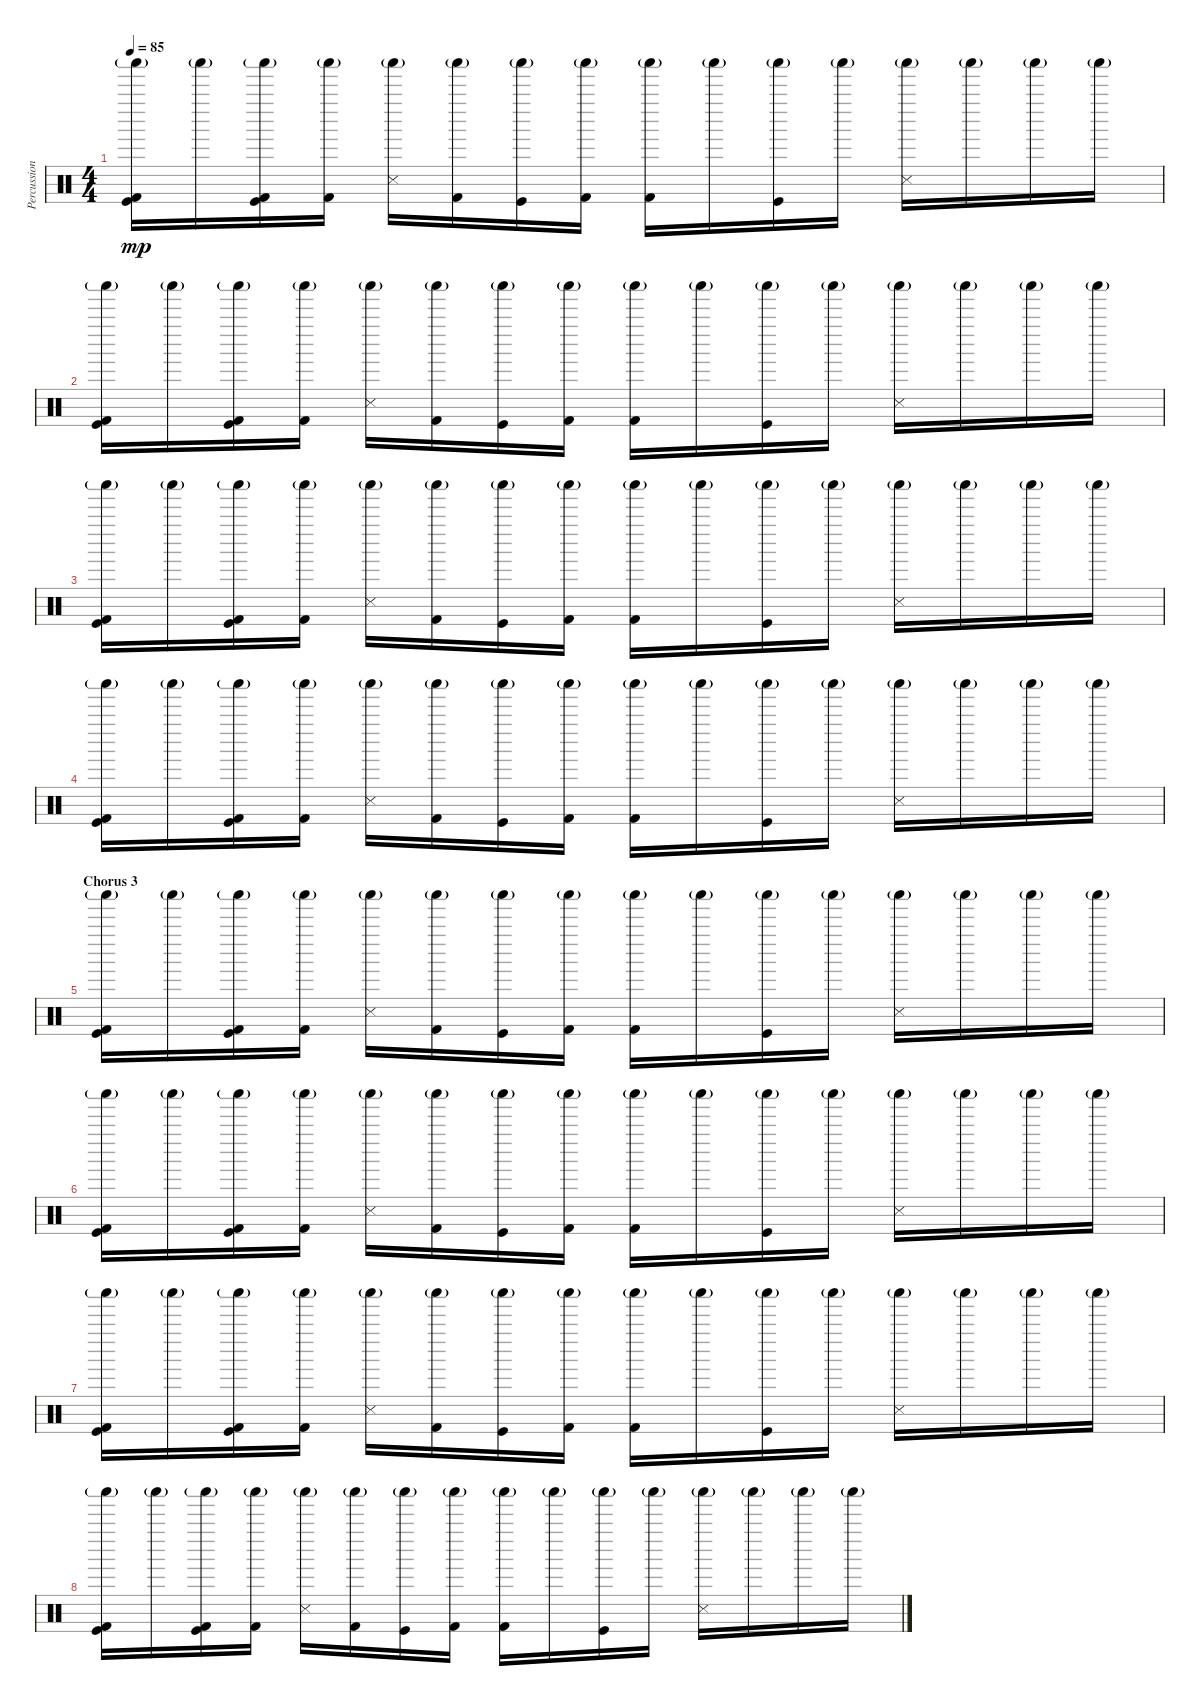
\track ("Percussions" "Percussion") {instrument percussion}
\staff {score}
\articulation defaults
\ts (4 4)
\tempo 85
\clef neutral
\ks c
("Shaker (hit)"{g} "Kick (hit) 2" "Kick (hit)").16{dy mp} "Shaker (hit)"{g}.16 ("Shaker (hit)"{g} "Kick (hit) 2" "Kick (hit)").16 ("Shaker (hit)"{g} "Kick (hit) 2").16 ("Shaker (hit)"{g} "Snare (side stick) 3").16 ("Shaker (hit)"{g} "Kick (hit) 2").16 ("Shaker (hit)"{g} "Kick (hit)").16 ("Shaker (hit)"{g} "Kick (hit) 2").16 ("Shaker (hit)"{g} "Kick (hit) 2").16 "Shaker (hit)"{g}.16 ("Shaker (hit)"{g} "Kick (hit)").16 "Shaker (hit)"{g}.16 ("Shaker (hit)"{g} "Snare (side stick) 3").16 "Shaker (hit)"{g}.16 "Shaker (hit)"{g}.16 "Shaker (hit)"{g}.16 |
("Shaker (hit)"{g} "Kick (hit) 2" "Kick (hit)").16 "Shaker (hit)"{g}.16 ("Shaker (hit)"{g} "Kick (hit) 2" "Kick (hit)").16 ("Shaker (hit)"{g} "Kick (hit) 2").16 ("Shaker (hit)"{g} "Snare (side stick) 3").16 ("Shaker (hit)"{g} "Kick (hit) 2").16 ("Shaker (hit)"{g} "Kick (hit)").16 ("Shaker (hit)"{g} "Kick (hit) 2").16 ("Shaker (hit)"{g} "Kick (hit) 2").16 "Shaker (hit)"{g}.16 ("Shaker (hit)"{g} "Kick (hit)").16 "Shaker (hit)"{g}.16 ("Shaker (hit)"{g} "Snare (side stick) 3").16 "Shaker (hit)"{g}.16 "Shaker (hit)"{g}.16 "Shaker (hit)"{g}.16 |
("Shaker (hit)"{g} "Kick (hit) 2" "Kick (hit)").16 "Shaker (hit)"{g}.16 ("Shaker (hit)"{g} "Kick (hit) 2" "Kick (hit)").16 ("Shaker (hit)"{g} "Kick (hit) 2").16 ("Shaker (hit)"{g} "Snare (side stick) 3").16 ("Shaker (hit)"{g} "Kick (hit) 2").16 ("Shaker (hit)"{g} "Kick (hit)").16 ("Shaker (hit)"{g} "Kick (hit) 2").16 ("Shaker (hit)"{g} "Kick (hit) 2").16 "Shaker (hit)"{g}.16 ("Shaker (hit)"{g} "Kick (hit)").16 "Shaker (hit)"{g}.16 ("Shaker (hit)"{g} "Snare (side stick) 3").16 "Shaker (hit)"{g}.16 "Shaker (hit)"{g}.16 "Shaker (hit)"{g}.16 |
("Shaker (hit)"{g} "Kick (hit) 2" "Kick (hit)").16 "Shaker (hit)"{g}.16 ("Shaker (hit)"{g} "Kick (hit) 2" "Kick (hit)").16 ("Shaker (hit)"{g} "Kick (hit) 2").16 ("Shaker (hit)"{g} "Snare (side stick) 3").16 ("Shaker (hit)"{g} "Kick (hit) 2").16 ("Shaker (hit)"{g} "Kick (hit)").16 ("Shaker (hit)"{g} "Kick (hit) 2").16 ("Shaker (hit)"{g} "Kick (hit) 2").16 "Shaker (hit)"{g}.16 ("Shaker (hit)"{g} "Kick (hit)").16 "Shaker (hit)"{g}.16 ("Shaker (hit)"{g} "Snare (side stick) 3").16 "Shaker (hit)"{g}.16 "Shaker (hit)"{g}.16 "Shaker (hit)"{g}.16 |
\section ("" "Chorus 3")
("Shaker (hit)"{g} "Kick (hit) 2" "Kick (hit)").16 "Shaker (hit)"{g}.16 ("Shaker (hit)"{g} "Kick (hit) 2" "Kick (hit)").16 ("Shaker (hit)"{g} "Kick (hit) 2").16 ("Shaker (hit)"{g} "Snare (side stick) 3").16 ("Shaker (hit)"{g} "Kick (hit) 2").16 ("Shaker (hit)"{g} "Kick (hit)").16 ("Shaker (hit)"{g} "Kick (hit) 2").16 ("Shaker (hit)"{g} "Kick (hit) 2").16 "Shaker (hit)"{g}.16 ("Shaker (hit)"{g} "Kick (hit)").16 "Shaker (hit)"{g}.16 ("Shaker (hit)"{g} "Snare (side stick) 3").16 "Shaker (hit)"{g}.16 "Shaker (hit)"{g}.16 "Shaker (hit)"{g}.16 |
("Shaker (hit)"{g} "Kick (hit) 2" "Kick (hit)").16 "Shaker (hit)"{g}.16 ("Shaker (hit)"{g} "Kick (hit) 2" "Kick (hit)").16 ("Shaker (hit)"{g} "Kick (hit) 2").16 ("Shaker (hit)"{g} "Snare (side stick) 3").16 ("Shaker (hit)"{g} "Kick (hit) 2").16 ("Shaker (hit)"{g} "Kick (hit)").16 ("Shaker (hit)"{g} "Kick (hit) 2").16 ("Shaker (hit)"{g} "Kick (hit) 2").16 "Shaker (hit)"{g}.16 ("Shaker (hit)"{g} "Kick (hit)").16 "Shaker (hit)"{g}.16 ("Shaker (hit)"{g} "Snare (side stick) 3").16 "Shaker (hit)"{g}.16 "Shaker (hit)"{g}.16 "Shaker (hit)"{g}.16 |
("Shaker (hit)"{g} "Kick (hit) 2" "Kick (hit)").16 "Shaker (hit)"{g}.16 ("Shaker (hit)"{g} "Kick (hit) 2" "Kick (hit)").16 ("Shaker (hit)"{g} "Kick (hit) 2").16 ("Shaker (hit)"{g} "Snare (side stick) 3").16 ("Shaker (hit)"{g} "Kick (hit) 2").16 ("Shaker (hit)"{g} "Kick (hit)").16 ("Shaker (hit)"{g} "Kick (hit) 2").16 ("Shaker (hit)"{g} "Kick (hit) 2").16 "Shaker (hit)"{g}.16 ("Shaker (hit)"{g} "Kick (hit)").16 "Shaker (hit)"{g}.16 ("Shaker (hit)"{g} "Snare (side stick) 3").16 "Shaker (hit)"{g}.16 "Shaker (hit)"{g}.16 "Shaker (hit)"{g}.16 |
("Shaker (hit)"{g} "Kick (hit) 2" "Kick (hit)").16 "Shaker (hit)"{g}.16 ("Shaker (hit)"{g} "Kick (hit) 2" "Kick (hit)").16 ("Shaker (hit)"{g} "Kick (hit) 2").16 ("Shaker (hit)"{g} "Snare (side stick) 3").16 ("Shaker (hit)"{g} "Kick (hit) 2").16 ("Shaker (hit)"{g} "Kick (hit)").16 ("Shaker (hit)"{g} "Kick (hit) 2").16 ("Shaker (hit)"{g} "Kick (hit) 2").16 "Shaker (hit)"{g}.16 ("Shaker (hit)"{g} "Kick (hit)").16 "Shaker (hit)"{g}.16 ("Shaker (hit)"{g} "Snare (side stick) 3").16 "Shaker (hit)"{g}.16 "Shaker (hit)"{g}.16 "Shaker (hit)"{g}.16
